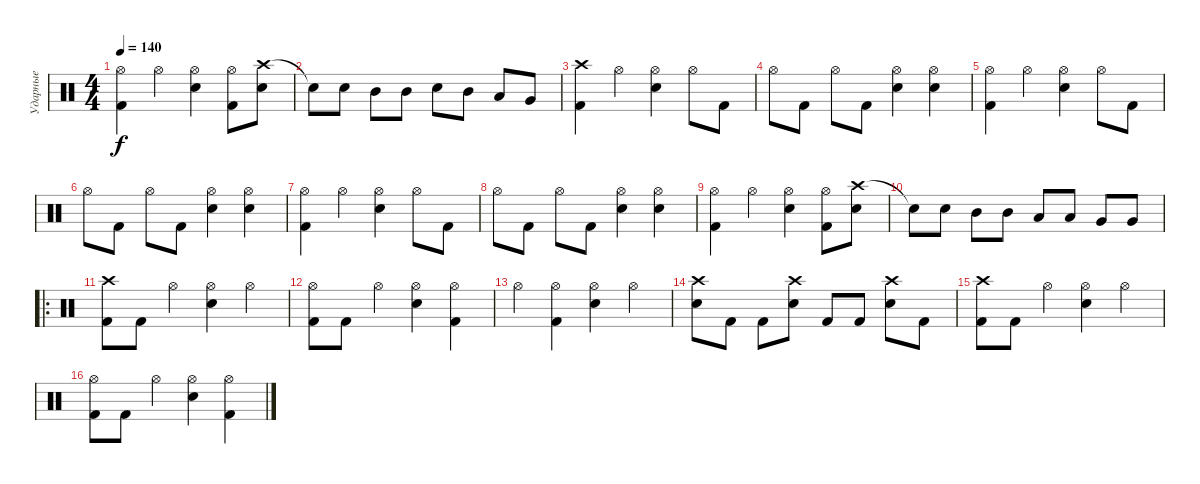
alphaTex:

\track ("Ударные" "Ударные") {instrument percussion}
\staff {score}
\articulation defaults
\ts (4 4)
\tempo 140
\clef neutral
\ks c
("Hi-Hat (open)" "Kick (hit) 2").4{dy f} "Hi-Hat (open)".4 ("Hi-Hat (open)" "Snare (hit) 2").4 ("Hi-Hat (open)" "Kick (hit) 2").8 ("Crash high (hit)" "Snare (hit) 2").8 |
"Snare (hit)"{t}.8 "Snare (hit) 2".8 "Mid Tom (hit)".8 "Mid Tom (hit)".8 "Snare (hit) 2".8 "Mid Tom (hit)".8 "Low Tom (hit)".8 "Very Low Tom (hit)".8 |
("Crash high (hit)" "Kick (hit) 2").4 "Hi-Hat (open)".4 ("Hi-Hat (open)" "Snare (hit) 2").4 "Hi-Hat (open)".8 "Kick (hit) 2".8 |
"Hi-Hat (open)".8 "Kick (hit) 2".8 "Hi-Hat (open)".8 "Kick (hit) 2".8 ("Hi-Hat (open)" "Snare (hit) 2").4 ("Hi-Hat (open)" "Snare (hit) 2").4 |
("Hi-Hat (open)" "Kick (hit) 2").4 "Hi-Hat (open)".4 ("Hi-Hat (open)" "Snare (hit) 2").4 "Hi-Hat (open)".8 "Kick (hit) 2".8 |
"Hi-Hat (open)".8 "Kick (hit) 2".8 "Hi-Hat (open)".8 "Kick (hit) 2".8 ("Hi-Hat (open)" "Snare (hit) 2").4 ("Hi-Hat (open)" "Snare (hit) 2").4 |
("Hi-Hat (open)" "Kick (hit) 2").4 "Hi-Hat (open)".4 ("Hi-Hat (open)" "Snare (hit) 2").4 "Hi-Hat (open)".8 "Kick (hit) 2".8 |
"Hi-Hat (open)".8 "Kick (hit) 2".8 "Hi-Hat (open)".8 "Kick (hit) 2".8 ("Hi-Hat (open)" "Snare (hit) 2").4 ("Hi-Hat (open)" "Snare (hit) 2").4 |
("Hi-Hat (open)" "Kick (hit) 2").4 "Hi-Hat (open)".4 ("Hi-Hat (open)" "Snare (hit) 2").4 ("Hi-Hat (open)" "Kick (hit) 2").8 ("Crash high (hit)" "Snare (hit) 2").8 |
"Snare (hit)"{t}.8 "Snare (hit) 2".8 "Mid Tom (hit)".8 "Mid Tom (hit)".8 "Low Tom (hit)".8 "Low Tom (hit)".8 "Very Low Tom (hit)".8 "Very Low Tom (hit)".8 |
\ro
("Crash high (hit)" "Kick (hit) 2").8 "Kick (hit) 2".8 "Hi-Hat (open)".4 ("Hi-Hat (open)" "Snare (hit) 2").4 "Hi-Hat (open)".4 |
("Hi-Hat (open)" "Kick (hit) 2").8 "Kick (hit) 2".8 "Hi-Hat (open)".4 ("Hi-Hat (open)" "Snare (hit) 2").4 ("Hi-Hat (open)" "Kick (hit) 2").4 |
"Hi-Hat (open)".4 ("Hi-Hat (open)" "Kick (hit) 2").4 ("Hi-Hat (open)" "Snare (hit) 2").4 "Hi-Hat (open)".4 |
("Crash high (hit)" "Snare (hit) 2").8 "Kick (hit) 2".8 "Kick (hit) 2".8 ("Crash high (hit)" "Snare (hit) 2").8 "Kick (hit) 2".8 "Kick (hit) 2".8 ("Crash high (hit)" "Snare (hit) 2").8 "Kick (hit) 2".8 |
("Crash high (hit)" "Kick (hit) 2").8 "Kick (hit) 2".8 "Hi-Hat (open)".4 ("Hi-Hat (open)" "Snare (hit) 2").4 "Hi-Hat (open)".4 |
("Hi-Hat (open)" "Kick (hit) 2").8 "Kick (hit) 2".8 "Hi-Hat (open)".4 ("Hi-Hat (open)" "Snare (hit) 2").4 ("Hi-Hat (open)" "Kick (hit) 2").4
